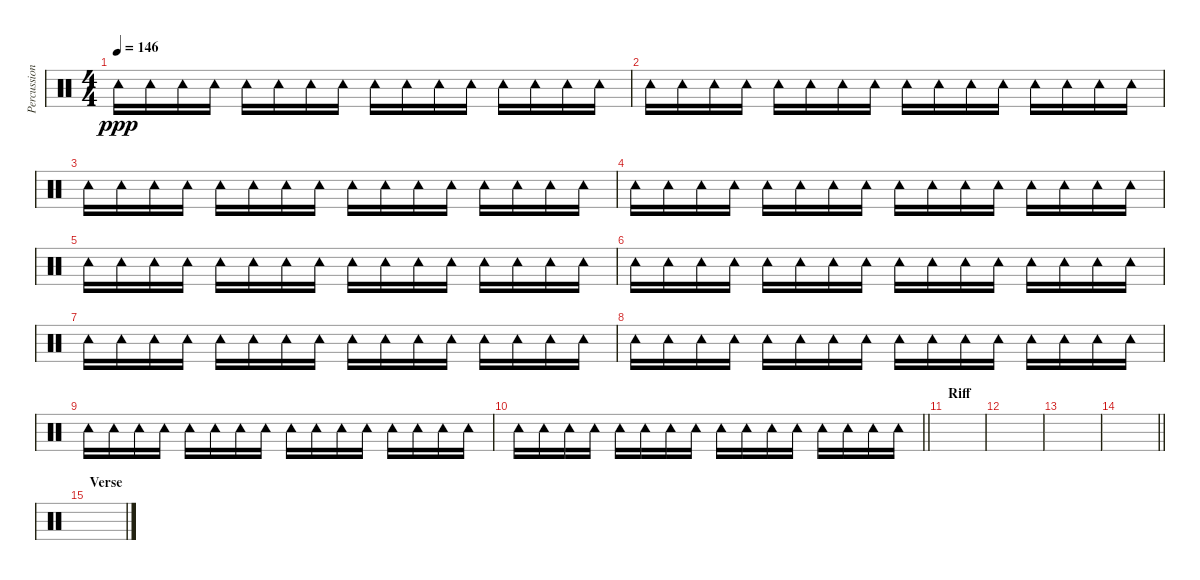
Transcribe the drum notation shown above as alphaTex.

\track ("Percussion" "Percussion") {instrument percussion}
\staff {score}
\articulation defaults
\ts (4 4)
\tempo 146
\clef neutral
\ks c "Tambourine (hit)".16{dy ppp} "Tambourine (hit)".16 "Tambourine (hit)".16 "Tambourine (hit)".16 "Tambourine (hit)".16 "Tambourine (hit)".16 "Tambourine (hit)".16 "Tambourine (hit)".16 "Tambourine (hit)".16 "Tambourine (hit)".16 "Tambourine (hit)".16 "Tambourine (hit)".16 "Tambourine (hit)".16 "Tambourine (hit)".16 "Tambourine (hit)".16 "Tambourine (hit)".16
|
"Tambourine (hit)".16 "Tambourine (hit)".16 "Tambourine (hit)".16 "Tambourine (hit)".16 "Tambourine (hit)".16 "Tambourine (hit)".16 "Tambourine (hit)".16 "Tambourine (hit)".16 "Tambourine (hit)".16 "Tambourine (hit)".16 "Tambourine (hit)".16 "Tambourine (hit)".16 "Tambourine (hit)".16 "Tambourine (hit)".16 "Tambourine (hit)".16 "Tambourine (hit)".16 |
"Tambourine (hit)".16 "Tambourine (hit)".16 "Tambourine (hit)".16 "Tambourine (hit)".16 "Tambourine (hit)".16 "Tambourine (hit)".16 "Tambourine (hit)".16 "Tambourine (hit)".16 "Tambourine (hit)".16 "Tambourine (hit)".16 "Tambourine (hit)".16 "Tambourine (hit)".16 "Tambourine (hit)".16 "Tambourine (hit)".16 "Tambourine (hit)".16 "Tambourine (hit)".16 |
"Tambourine (hit)".16 "Tambourine (hit)".16 "Tambourine (hit)".16 "Tambourine (hit)".16 "Tambourine (hit)".16 "Tambourine (hit)".16 "Tambourine (hit)".16 "Tambourine (hit)".16 "Tambourine (hit)".16 "Tambourine (hit)".16 "Tambourine (hit)".16 "Tambourine (hit)".16 "Tambourine (hit)".16 "Tambourine (hit)".16 "Tambourine (hit)".16 "Tambourine (hit)".16 |
"Tambourine (hit)".16 "Tambourine (hit)".16 "Tambourine (hit)".16 "Tambourine (hit)".16 "Tambourine (hit)".16 "Tambourine (hit)".16 "Tambourine (hit)".16 "Tambourine (hit)".16 "Tambourine (hit)".16 "Tambourine (hit)".16 "Tambourine (hit)".16 "Tambourine (hit)".16 "Tambourine (hit)".16 "Tambourine (hit)".16 "Tambourine (hit)".16 "Tambourine (hit)".16 |
"Tambourine (hit)".16 "Tambourine (hit)".16 "Tambourine (hit)".16 "Tambourine (hit)".16 "Tambourine (hit)".16 "Tambourine (hit)".16 "Tambourine (hit)".16 "Tambourine (hit)".16 "Tambourine (hit)".16 "Tambourine (hit)".16 "Tambourine (hit)".16 "Tambourine (hit)".16 "Tambourine (hit)".16 "Tambourine (hit)".16 "Tambourine (hit)".16 "Tambourine (hit)".16 |
"Tambourine (hit)".16 "Tambourine (hit)".16 "Tambourine (hit)".16 "Tambourine (hit)".16 "Tambourine (hit)".16 "Tambourine (hit)".16 "Tambourine (hit)".16 "Tambourine (hit)".16 "Tambourine (hit)".16 "Tambourine (hit)".16 "Tambourine (hit)".16 "Tambourine (hit)".16 "Tambourine (hit)".16 "Tambourine (hit)".16 "Tambourine (hit)".16 "Tambourine (hit)".16 |
"Tambourine (hit)".16 "Tambourine (hit)".16 "Tambourine (hit)".16 "Tambourine (hit)".16 "Tambourine (hit)".16 "Tambourine (hit)".16 "Tambourine (hit)".16 "Tambourine (hit)".16 "Tambourine (hit)".16 "Tambourine (hit)".16 "Tambourine (hit)".16 "Tambourine (hit)".16 "Tambourine (hit)".16 "Tambourine (hit)".16 "Tambourine (hit)".16 "Tambourine (hit)".16 |
"Tambourine (hit)".16 "Tambourine (hit)".16 "Tambourine (hit)".16 "Tambourine (hit)".16 "Tambourine (hit)".16 "Tambourine (hit)".16 "Tambourine (hit)".16 "Tambourine (hit)".16 "Tambourine (hit)".16 "Tambourine (hit)".16 "Tambourine (hit)".16 "Tambourine (hit)".16 "Tambourine (hit)".16 "Tambourine (hit)".16 "Tambourine (hit)".16 "Tambourine (hit)".16 |
\barLineRight lightlight "Tambourine (hit)".16 "Tambourine (hit)".16 "Tambourine (hit)".16 "Tambourine (hit)".16 "Tambourine (hit)".16 "Tambourine (hit)".16 "Tambourine (hit)".16 "Tambourine (hit)".16 "Tambourine (hit)".16 "Tambourine (hit)".16 "Tambourine (hit)".16 "Tambourine (hit)".16 "Tambourine (hit)".16 "Tambourine (hit)".16 "Tambourine (hit)".16 "Tambourine (hit)".16
|
\section ("" "Riff")
|
|
|
\barLineRight lightlight
|
\section ("" "Verse")
